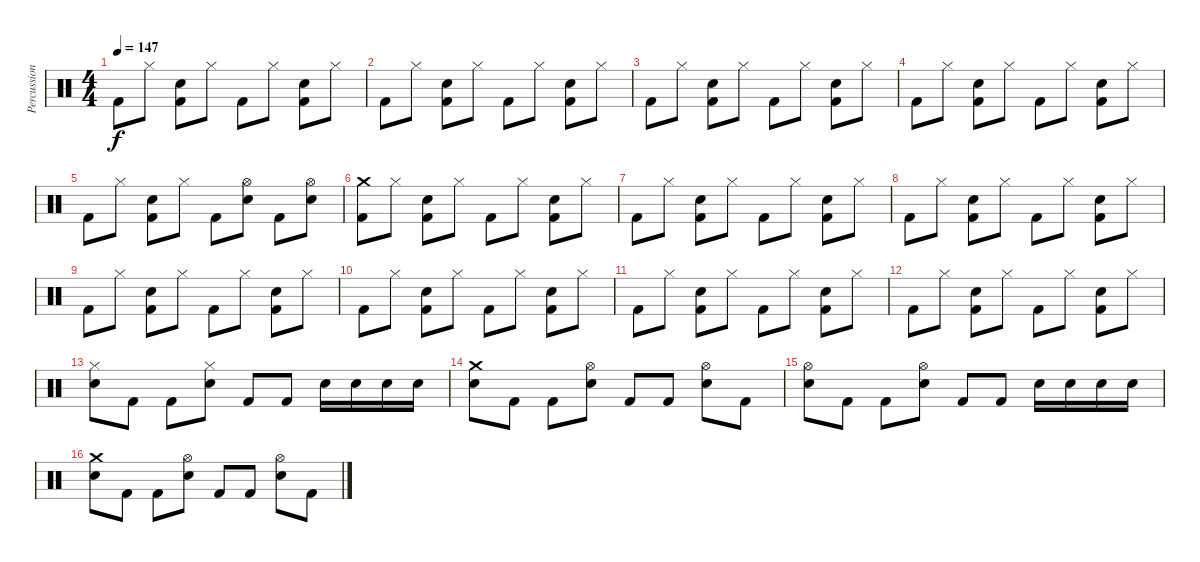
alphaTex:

\track ("Percussion" "Percussion") {instrument percussion}
\staff {score}
\articulation defaults
\ts (4 4)
\tempo 147
\clef neutral
\ks c "Kick (hit) 2".8{dy f} "Hi-Hat (closed)".8
("Kick (hit) 2" "Electric Snare (hit)").8 "Hi-Hat (closed)".8 "Kick (hit) 2".8 "Hi-Hat (closed)".8 ("Kick (hit) 2" "Electric Snare (hit)").8 "Hi-Hat (closed)".8 |
"Kick (hit) 2".8 "Hi-Hat (closed)".8 ("Kick (hit) 2" "Electric Snare (hit)").8 "Hi-Hat (closed)".8 "Kick (hit) 2".8 "Hi-Hat (closed)".8 ("Kick (hit) 2" "Electric Snare (hit)").8 "Hi-Hat (closed)".8 |
"Kick (hit) 2".8 "Hi-Hat (closed)".8 ("Kick (hit) 2" "Electric Snare (hit)").8 "Hi-Hat (closed)".8 "Kick (hit) 2".8 "Hi-Hat (closed)".8 ("Kick (hit) 2" "Electric Snare (hit)").8 "Hi-Hat (closed)".8 |
"Kick (hit) 2".8 "Hi-Hat (closed)".8 ("Kick (hit) 2" "Electric Snare (hit)").8 "Hi-Hat (closed)".8 "Kick (hit) 2".8 "Hi-Hat (closed)".8 ("Kick (hit) 2" "Electric Snare (hit)").8 "Hi-Hat (closed)".8 |
"Kick (hit) 2".8 "Hi-Hat (closed)".8 ("Kick (hit) 2" "Electric Snare (hit)").8 "Hi-Hat (closed)".8 "Kick (hit) 2".8 ("Hi-Hat (open)" "Electric Snare (hit)").8 "Kick (hit) 2".8 ("Hi-Hat (open)" "Electric Snare (hit)").8 |
("Crash medium (hit)" "Kick (hit) 2").8 "Hi-Hat (closed)".8 ("Kick (hit) 2" "Electric Snare (hit)").8 "Hi-Hat (closed)".8 "Kick (hit) 2".8 "Hi-Hat (closed)".8 ("Kick (hit) 2" "Electric Snare (hit)").8 "Hi-Hat (closed)".8 |
"Kick (hit) 2".8 "Hi-Hat (closed)".8 ("Kick (hit) 2" "Electric Snare (hit)").8 "Hi-Hat (closed)".8 "Kick (hit) 2".8 "Hi-Hat (closed)".8 ("Kick (hit) 2" "Electric Snare (hit)").8 "Hi-Hat (closed)".8 |
"Kick (hit) 2".8 "Hi-Hat (closed)".8 ("Kick (hit) 2" "Electric Snare (hit)").8 "Hi-Hat (closed)".8 "Kick (hit) 2".8 "Hi-Hat (closed)".8 ("Kick (hit) 2" "Electric Snare (hit)").8 "Hi-Hat (closed)".8 |
"Kick (hit) 2".8 "Hi-Hat (closed)".8 ("Kick (hit) 2" "Electric Snare (hit)").8 "Hi-Hat (closed)".8 "Kick (hit) 2".8 "Hi-Hat (closed)".8 ("Kick (hit) 2" "Electric Snare (hit)").8 "Hi-Hat (closed)".8 |
"Kick (hit) 2".8 "Hi-Hat (closed)".8 ("Kick (hit) 2" "Electric Snare (hit)").8 "Hi-Hat (closed)".8 "Kick (hit) 2".8 "Hi-Hat (closed)".8 ("Kick (hit) 2" "Electric Snare (hit)").8 "Hi-Hat (closed)".8 |
"Kick (hit) 2".8 "Hi-Hat (closed)".8 ("Kick (hit) 2" "Electric Snare (hit)").8 "Hi-Hat (closed)".8 "Kick (hit) 2".8 "Hi-Hat (closed)".8 ("Kick (hit) 2" "Electric Snare (hit)").8 "Hi-Hat (closed)".8 |
"Kick (hit) 2".8 "Hi-Hat (closed)".8 ("Kick (hit) 2" "Electric Snare (hit)").8 "Hi-Hat (closed)".8 "Kick (hit) 2".8 "Hi-Hat (closed)".8 ("Kick (hit) 2" "Electric Snare (hit)").8 "Hi-Hat (closed)".8 |
("Electric Snare (hit)" "Hi-Hat (closed)").8 "Kick (hit) 2".8 "Kick (hit) 2".8 ("Electric Snare (hit)" "Hi-Hat (closed)").8 "Kick (hit) 2".8 "Kick (hit) 2".8 "Electric Snare (hit)".16 "Electric Snare (hit)".16 "Electric Snare (hit)".16 "Electric Snare (hit)".16 |
("Crash medium (hit)" "Electric Snare (hit)").8 "Kick (hit) 2".8 "Kick (hit) 2".8 ("Hi-Hat (open)" "Electric Snare (hit)").8 "Kick (hit) 2".8 "Kick (hit) 2".8 ("Hi-Hat (open)" "Electric Snare (hit)").8 "Kick (hit) 2".8 |
("Hi-Hat (open)" "Electric Snare (hit)").8 "Kick (hit) 2".8 "Kick (hit) 2".8 ("Hi-Hat (open)" "Electric Snare (hit)").8 "Kick (hit) 2".8 "Kick (hit) 2".8 "Electric Snare (hit)".16 "Electric Snare (hit)".16 "Electric Snare (hit)".16 "Electric Snare (hit)".16 |
("Crash medium (hit)" "Electric Snare (hit)").8 "Kick (hit) 2".8 "Kick (hit) 2".8 ("Hi-Hat (open)" "Electric Snare (hit)").8 "Kick (hit) 2".8 "Kick (hit) 2".8 ("Hi-Hat (open)" "Electric Snare (hit)").8 "Kick (hit) 2".8
